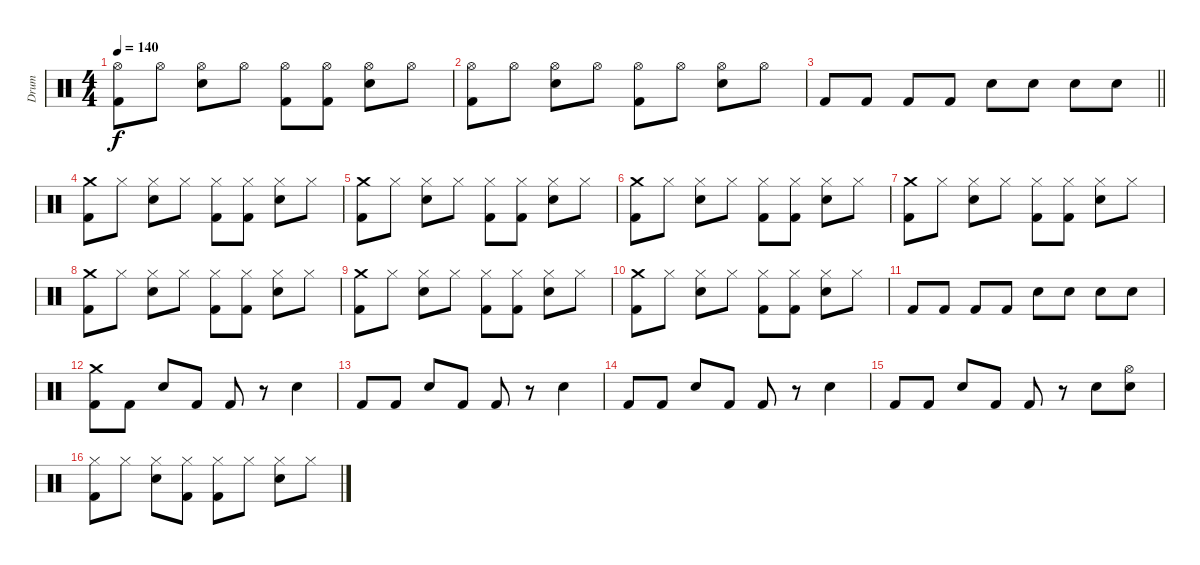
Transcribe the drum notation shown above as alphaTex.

\track ("Drum" "Drum") {instrument percussion}
\staff {score}
\articulation defaults
\ts (4 4)
\tempo 140
\clef neutral
\ks c
("Hi-Hat (open)" "Kick (hit) 2").8{dy f} "Hi-Hat (open)".8 ("Hi-Hat (open)" "Electric Snare (hit)").8 "Hi-Hat (open)".8 ("Hi-Hat (open)" "Kick (hit) 2").8 ("Hi-Hat (open)" "Kick (hit) 2").8 ("Hi-Hat (open)" "Electric Snare (hit)").8 "Hi-Hat (open)".8 |
("Hi-Hat (open)" "Kick (hit) 2").8 "Hi-Hat (open)".8 ("Hi-Hat (open)" "Electric Snare (hit)").8 "Hi-Hat (open)".8 ("Hi-Hat (open)" "Kick (hit) 2").8 "Hi-Hat (open)".8 ("Hi-Hat (open)" "Electric Snare (hit)").8 "Hi-Hat (open)".8 |
\barLineRight lightlight "Kick (hit) 2".8 "Kick (hit) 2".8 "Kick (hit) 2".8 "Kick (hit) 2".8 "Electric Snare (hit)".8 "Electric Snare (hit)".8 "Electric Snare (hit)".8 "Electric Snare (hit)".8
|
("Crash medium (hit)" "Kick (hit) 2").8 "Hi-Hat (closed)".8 ("Hi-Hat (closed)" "Electric Snare (hit)").8 "Hi-Hat (closed)".8 ("Hi-Hat (closed)" "Kick (hit) 2").8 ("Hi-Hat (closed)" "Kick (hit) 2").8 ("Hi-Hat (closed)" "Electric Snare (hit)").8 "Hi-Hat (closed)".8 |
("Crash medium (hit)" "Kick (hit) 2").8 "Hi-Hat (closed)".8 ("Hi-Hat (closed)" "Electric Snare (hit)").8 "Hi-Hat (closed)".8 ("Hi-Hat (closed)" "Kick (hit) 2").8 ("Hi-Hat (closed)" "Kick (hit) 2").8 ("Hi-Hat (closed)" "Electric Snare (hit)").8 "Hi-Hat (closed)".8 |
("Crash medium (hit)" "Kick (hit) 2").8 "Hi-Hat (closed)".8 ("Hi-Hat (closed)" "Electric Snare (hit)").8 "Hi-Hat (closed)".8 ("Hi-Hat (closed)" "Kick (hit) 2").8 ("Hi-Hat (closed)" "Kick (hit) 2").8 ("Hi-Hat (closed)" "Electric Snare (hit)").8 "Hi-Hat (closed)".8 |
("Crash medium (hit)" "Kick (hit) 2").8 "Hi-Hat (closed)".8 ("Hi-Hat (closed)" "Electric Snare (hit)").8 "Hi-Hat (closed)".8 ("Hi-Hat (closed)" "Kick (hit) 2").8 ("Hi-Hat (closed)" "Kick (hit) 2").8 ("Hi-Hat (closed)" "Electric Snare (hit)").8 "Hi-Hat (closed)".8 |
("Crash medium (hit)" "Kick (hit) 2").8 "Hi-Hat (closed)".8 ("Hi-Hat (closed)" "Electric Snare (hit)").8 "Hi-Hat (closed)".8 ("Hi-Hat (closed)" "Kick (hit) 2").8 ("Hi-Hat (closed)" "Kick (hit) 2").8 ("Hi-Hat (closed)" "Electric Snare (hit)").8 "Hi-Hat (closed)".8 |
("Crash medium (hit)" "Kick (hit) 2").8 "Hi-Hat (closed)".8 ("Hi-Hat (closed)" "Electric Snare (hit)").8 "Hi-Hat (closed)".8 ("Hi-Hat (closed)" "Kick (hit) 2").8 ("Hi-Hat (closed)" "Kick (hit) 2").8 ("Hi-Hat (closed)" "Electric Snare (hit)").8 "Hi-Hat (closed)".8 |
("Crash medium (hit)" "Kick (hit) 2").8 "Hi-Hat (closed)".8 ("Hi-Hat (closed)" "Electric Snare (hit)").8 "Hi-Hat (closed)".8 ("Hi-Hat (closed)" "Kick (hit) 2").8 ("Hi-Hat (closed)" "Kick (hit) 2").8 ("Hi-Hat (closed)" "Electric Snare (hit)").8 "Hi-Hat (closed)".8 |
"Kick (hit) 2".8 "Kick (hit) 2".8 "Kick (hit) 2".8 "Kick (hit) 2".8 "Electric Snare (hit)".8 "Electric Snare (hit)".8 "Electric Snare (hit)".8 "Electric Snare (hit)".8 |
("Crash medium (hit)" "Kick (hit) 2").8 "Kick (hit) 2".8 "Electric Snare (hit)".8 "Kick (hit) 2".8 "Kick (hit) 2".8 r.8 "Electric Snare (hit)".4 |
"Kick (hit) 2".8 "Kick (hit) 2".8 "Electric Snare (hit)".8 "Kick (hit) 2".8 "Kick (hit) 2".8 r.8 "Electric Snare (hit)".4 |
"Kick (hit) 2".8 "Kick (hit) 2".8 "Electric Snare (hit)".8 "Kick (hit) 2".8 "Kick (hit) 2".8 r.8 "Electric Snare (hit)".4 |
"Kick (hit) 2".8 "Kick (hit) 2".8 "Electric Snare (hit)".8 "Kick (hit) 2".8 "Kick (hit) 2".8 r.8 "Electric Snare (hit)".8 ("Hi-Hat (open)" "Electric Snare (hit)").8 |
("Hi-Hat (closed)" "Kick (hit) 2").8 "Hi-Hat (closed)".8 ("Hi-Hat (closed)" "Electric Snare (hit)").8 ("Hi-Hat (closed)" "Kick (hit) 2").8 ("Hi-Hat (closed)" "Kick (hit) 2").8 "Hi-Hat (closed)".8 ("Hi-Hat (closed)" "Electric Snare (hit)").8 "Hi-Hat (closed)".8
